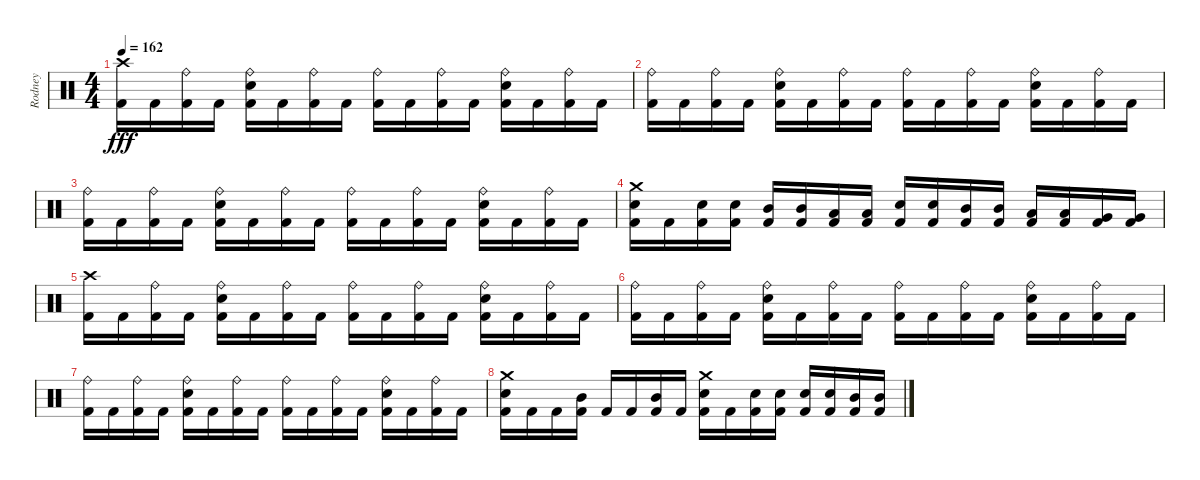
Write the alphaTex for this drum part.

\track ("Rodney" "Rodney") {instrument percussion}
\staff {score}
\articulation defaults
\ts (4 4)
\tempo 162
\clef neutral
\ks c
("Crash high (hit)" "Kick (hit) 2").16{dy fff volume 2} "Kick (hit) 2".16 ("Ride (bell)" "Kick (hit) 2").16 "Kick (hit) 2".16 ("Ride (bell)" "Snare (hit) 2" "Kick (hit) 2").16 "Kick (hit) 2".16 ("Ride (bell)" "Kick (hit) 2").16 "Kick (hit) 2".16 ("Ride (bell)" "Kick (hit) 2").16 "Kick (hit) 2".16 ("Ride (bell)" "Kick (hit) 2").16 "Kick (hit) 2".16 ("Ride (bell)" "Snare (hit) 2" "Kick (hit) 2").16 "Kick (hit) 2".16 ("Ride (bell)" "Kick (hit) 2").16 "Kick (hit) 2".16 |
("Ride (bell)" "Kick (hit) 2").16 "Kick (hit) 2".16 ("Ride (bell)" "Kick (hit) 2").16 "Kick (hit) 2".16 ("Ride (bell)" "Snare (hit) 2" "Kick (hit) 2").16 "Kick (hit) 2".16 ("Ride (bell)" "Kick (hit) 2").16 "Kick (hit) 2".16 ("Ride (bell)" "Kick (hit) 2").16 "Kick (hit) 2".16 ("Ride (bell)" "Kick (hit) 2").16 "Kick (hit) 2".16 ("Ride (bell)" "Snare (hit) 2" "Kick (hit) 2").16 "Kick (hit) 2".16 ("Ride (bell)" "Kick (hit) 2").16 "Kick (hit) 2".16 |
("Ride (bell)" "Kick (hit) 2").16 "Kick (hit) 2".16 ("Ride (bell)" "Kick (hit) 2").16 "Kick (hit) 2".16 ("Ride (bell)" "Snare (hit) 2" "Kick (hit) 2").16 "Kick (hit) 2".16 ("Ride (bell)" "Kick (hit) 2").16 "Kick (hit) 2".16 ("Ride (bell)" "Kick (hit) 2").16 "Kick (hit) 2".16 ("Ride (bell)" "Kick (hit) 2").16 "Kick (hit) 2".16 ("Ride (bell)" "Snare (hit) 2" "Kick (hit) 2").16 "Kick (hit) 2".16 ("Ride (bell)" "Kick (hit) 2").16 "Kick (hit) 2".16 |
("Crash medium (hit)" "Snare (hit) 2" "Kick (hit) 2").16 "Kick (hit) 2".16 ("Snare (hit) 2" "Kick (hit) 2").16 ("Snare (hit) 2" "Kick (hit) 2").16 ("Mid Tom (hit)" "Kick (hit) 2").16 ("Mid Tom (hit)" "Kick (hit) 2").16 ("Low Tom (hit)" "Kick (hit) 2").16 ("Low Tom (hit)" "Kick (hit) 2").16 ("Snare (hit) 2" "Kick (hit) 2").16 ("Snare (hit) 2" "Kick (hit) 2").16 ("Mid Tom (hit)" "Kick (hit) 2").16 ("Mid Tom (hit)" "Kick (hit) 2").16 ("Low Tom (hit)" "Kick (hit) 2").16 ("Low Tom (hit)" "Kick (hit) 2").16 ("Very Low Tom (hit)" "Kick (hit) 2").16 ("Very Low Tom (hit)" "Kick (hit) 2").16 |
("Crash high (hit)" "Kick (hit) 2").16{volume 0} "Kick (hit) 2".16 ("Ride (bell)" "Kick (hit) 2").16 "Kick (hit) 2".16 ("Ride (bell)" "Snare (hit) 2" "Kick (hit) 2").16 "Kick (hit) 2".16 ("Ride (bell)" "Kick (hit) 2").16 "Kick (hit) 2".16 ("Ride (bell)" "Kick (hit) 2").16 "Kick (hit) 2".16 ("Ride (bell)" "Kick (hit) 2").16 "Kick (hit) 2".16 ("Ride (bell)" "Snare (hit) 2" "Kick (hit) 2").16 "Kick (hit) 2".16 ("Ride (bell)" "Kick (hit) 2").16 "Kick (hit) 2".16 |
("Ride (bell)" "Kick (hit) 2").16 "Kick (hit) 2".16 ("Ride (bell)" "Kick (hit) 2").16 "Kick (hit) 2".16 ("Ride (bell)" "Snare (hit) 2" "Kick (hit) 2").16 "Kick (hit) 2".16 ("Ride (bell)" "Kick (hit) 2").16 "Kick (hit) 2".16 ("Ride (bell)" "Kick (hit) 2").16 "Kick (hit) 2".16 ("Ride (bell)" "Kick (hit) 2").16 "Kick (hit) 2".16 ("Ride (bell)" "Snare (hit) 2" "Kick (hit) 2").16 "Kick (hit) 2".16 ("Ride (bell)" "Kick (hit) 2").16 "Kick (hit) 2".16 |
("Ride (bell)" "Kick (hit) 2").16 "Kick (hit) 2".16 ("Ride (bell)" "Kick (hit) 2").16 "Kick (hit) 2".16 ("Ride (bell)" "Snare (hit) 2" "Kick (hit) 2").16 "Kick (hit) 2".16 ("Ride (bell)" "Kick (hit) 2").16 "Kick (hit) 2".16 ("Ride (bell)" "Kick (hit) 2").16 "Kick (hit) 2".16 ("Ride (bell)" "Kick (hit) 2").16 "Kick (hit) 2".16 ("Ride (bell)" "Snare (hit) 2" "Kick (hit) 2").16 "Kick (hit) 2".16 ("Ride (bell)" "Kick (hit) 2").16 "Kick (hit) 2".16 |
("Crash medium (hit)" "Snare (hit) 2" "Kick (hit) 2").16 "Kick (hit) 2".16 "Kick (hit) 2".16 ("Mid Tom (hit)" "Kick (hit) 2").16 "Kick (hit) 2".16 "Kick (hit) 2".16 ("Mid Tom (hit)" "Kick (hit) 2").16 "Kick (hit) 2".16 ("Crash medium (hit)" "Snare (hit) 2" "Kick (hit) 2").16 "Kick (hit) 2".16 ("Snare (hit) 2" "Kick (hit) 2").16 ("Snare (hit) 2" "Kick (hit) 2").16 ("Snare (hit) 2" "Kick (hit) 2").16 ("Snare (hit) 2" "Kick (hit) 2").16 ("Mid Tom (hit)" "Kick (hit) 2").16 ("Mid Tom (hit)" "Kick (hit) 2").16
